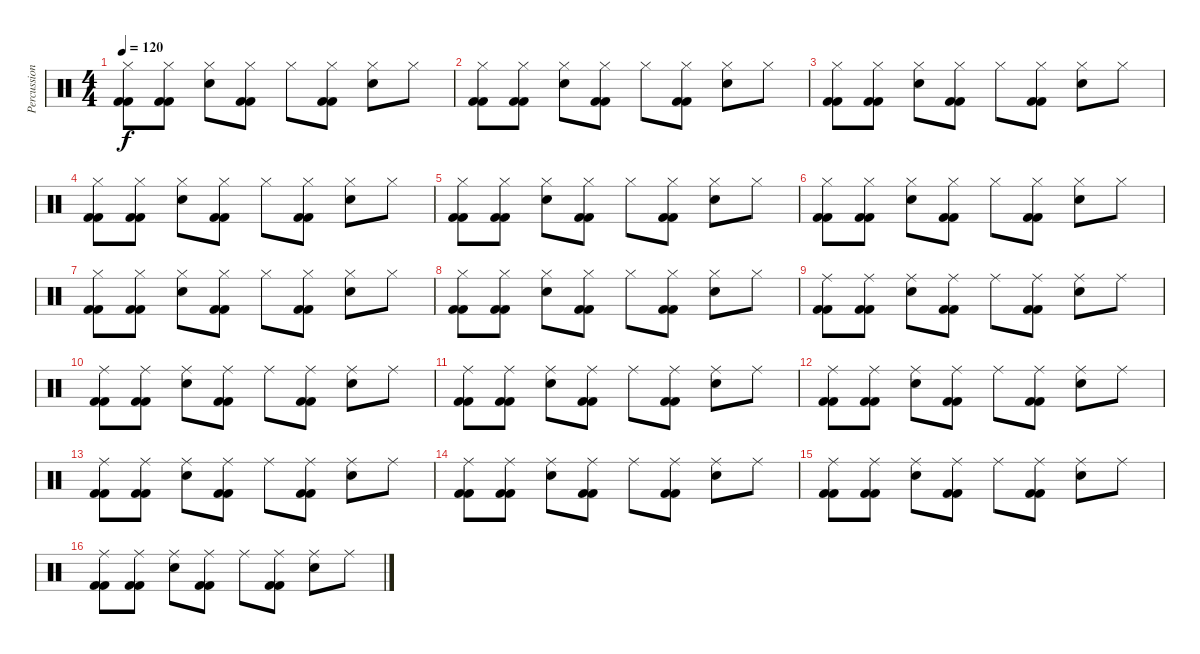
\track ("Percussion" "Percussion") {instrument percussion}
\staff {score}
\articulation defaults
\ts (4 4)
\tempo 120
\clef neutral
\ks c
("Hi-Hat (closed)" "Kick (hit) 2" "Kick (hit) 2").8{dy f} ("Hi-Hat (closed)" "Kick (hit) 2" "Kick (hit) 2").8 ("Hi-Hat (closed)" "Snare (hit) 2").8 ("Hi-Hat (closed)" "Kick (hit) 2" "Kick (hit) 2").8 "Hi-Hat (closed)".8 ("Hi-Hat (closed)" "Kick (hit) 2" "Kick (hit) 2").8 ("Hi-Hat (closed)" "Snare (hit) 2").8 "Hi-Hat (closed)".8 |
("Hi-Hat (closed)" "Kick (hit) 2" "Kick (hit) 2").8 ("Hi-Hat (closed)" "Kick (hit) 2" "Kick (hit) 2").8 ("Hi-Hat (closed)" "Snare (hit) 2").8 ("Hi-Hat (closed)" "Kick (hit) 2" "Kick (hit) 2").8 "Hi-Hat (closed)".8 ("Hi-Hat (closed)" "Kick (hit) 2" "Kick (hit) 2").8 ("Hi-Hat (closed)" "Snare (hit) 2").8 "Hi-Hat (closed)".8 |
("Hi-Hat (closed)" "Kick (hit) 2" "Kick (hit) 2").8 ("Hi-Hat (closed)" "Kick (hit) 2" "Kick (hit) 2").8 ("Hi-Hat (closed)" "Snare (hit) 2").8 ("Hi-Hat (closed)" "Kick (hit) 2" "Kick (hit) 2").8 "Hi-Hat (closed)".8 ("Hi-Hat (closed)" "Kick (hit) 2" "Kick (hit) 2").8 ("Hi-Hat (closed)" "Snare (hit) 2").8 "Hi-Hat (closed)".8 |
("Hi-Hat (closed)" "Kick (hit) 2" "Kick (hit) 2").8 ("Hi-Hat (closed)" "Kick (hit) 2" "Kick (hit) 2").8 ("Hi-Hat (closed)" "Snare (hit) 2").8 ("Hi-Hat (closed)" "Kick (hit) 2" "Kick (hit) 2").8 "Hi-Hat (closed)".8 ("Hi-Hat (closed)" "Kick (hit) 2" "Kick (hit) 2").8 ("Hi-Hat (closed)" "Snare (hit) 2").8 "Hi-Hat (closed)".8 |
("Hi-Hat (closed)" "Kick (hit) 2" "Kick (hit) 2").8 ("Hi-Hat (closed)" "Kick (hit) 2" "Kick (hit) 2").8 ("Hi-Hat (closed)" "Snare (hit) 2").8 ("Hi-Hat (closed)" "Kick (hit) 2" "Kick (hit) 2").8 "Hi-Hat (closed)".8 ("Hi-Hat (closed)" "Kick (hit) 2" "Kick (hit) 2").8 ("Hi-Hat (closed)" "Snare (hit) 2").8 "Hi-Hat (closed)".8 |
("Hi-Hat (closed)" "Kick (hit) 2" "Kick (hit) 2").8 ("Hi-Hat (closed)" "Kick (hit) 2" "Kick (hit) 2").8 ("Hi-Hat (closed)" "Snare (hit) 2").8 ("Hi-Hat (closed)" "Kick (hit) 2" "Kick (hit) 2").8 "Hi-Hat (closed)".8 ("Hi-Hat (closed)" "Kick (hit) 2" "Kick (hit) 2").8 ("Hi-Hat (closed)" "Snare (hit) 2").8 "Hi-Hat (closed)".8 |
("Hi-Hat (closed)" "Kick (hit) 2" "Kick (hit) 2").8 ("Hi-Hat (closed)" "Kick (hit) 2" "Kick (hit) 2").8 ("Hi-Hat (closed)" "Snare (hit) 2").8 ("Hi-Hat (closed)" "Kick (hit) 2" "Kick (hit) 2").8 "Hi-Hat (closed)".8 ("Hi-Hat (closed)" "Kick (hit) 2" "Kick (hit) 2").8 ("Hi-Hat (closed)" "Snare (hit) 2").8 "Hi-Hat (closed)".8 |
("Hi-Hat (closed)" "Kick (hit) 2" "Kick (hit) 2").8 ("Hi-Hat (closed)" "Kick (hit) 2" "Kick (hit) 2").8 ("Hi-Hat (closed)" "Snare (hit) 2").8 ("Hi-Hat (closed)" "Kick (hit) 2" "Kick (hit) 2").8 "Hi-Hat (closed)".8 ("Hi-Hat (closed)" "Kick (hit) 2" "Kick (hit) 2").8 ("Hi-Hat (closed)" "Snare (hit) 2").8 "Hi-Hat (closed)".8 |
("Ride (middle)" "Kick (hit) 2" "Kick (hit) 2").8 ("Ride (middle)" "Kick (hit) 2" "Kick (hit) 2").8 ("Ride (middle)" "Snare (hit) 2").8 ("Ride (middle)" "Kick (hit) 2" "Kick (hit) 2").8 "Ride (middle)".8 ("Ride (middle)" "Kick (hit) 2" "Kick (hit) 2").8 ("Ride (middle)" "Snare (hit) 2").8 "Ride (middle)".8 |
("Ride (middle)" "Kick (hit) 2" "Kick (hit) 2").8 ("Ride (middle)" "Kick (hit) 2" "Kick (hit) 2").8 ("Ride (middle)" "Snare (hit) 2").8 ("Ride (middle)" "Kick (hit) 2" "Kick (hit) 2").8 "Ride (middle)".8 ("Ride (middle)" "Kick (hit) 2" "Kick (hit) 2").8 ("Ride (middle)" "Snare (hit) 2").8 "Ride (middle)".8 |
("Ride (middle)" "Kick (hit) 2" "Kick (hit) 2").8 ("Ride (middle)" "Kick (hit) 2" "Kick (hit) 2").8 ("Ride (middle)" "Snare (hit) 2").8 ("Ride (middle)" "Kick (hit) 2" "Kick (hit) 2").8 "Ride (middle)".8 ("Ride (middle)" "Kick (hit) 2" "Kick (hit) 2").8 ("Ride (middle)" "Snare (hit) 2").8 "Ride (middle)".8 |
("Ride (middle)" "Kick (hit) 2" "Kick (hit) 2").8 ("Ride (middle)" "Kick (hit) 2" "Kick (hit) 2").8 ("Ride (middle)" "Snare (hit) 2").8 ("Ride (middle)" "Kick (hit) 2" "Kick (hit) 2").8 "Ride (middle)".8 ("Ride (middle)" "Kick (hit) 2" "Kick (hit) 2").8 ("Ride (middle)" "Snare (hit) 2").8 "Ride (middle)".8 |
("Ride (middle)" "Kick (hit) 2" "Kick (hit) 2").8 ("Ride (middle)" "Kick (hit) 2" "Kick (hit) 2").8 ("Ride (middle)" "Snare (hit) 2").8 ("Ride (middle)" "Kick (hit) 2" "Kick (hit) 2").8 "Ride (middle)".8 ("Ride (middle)" "Kick (hit) 2" "Kick (hit) 2").8 ("Ride (middle)" "Snare (hit) 2").8 "Ride (middle)".8 |
("Ride (middle)" "Kick (hit) 2" "Kick (hit) 2").8 ("Ride (middle)" "Kick (hit) 2" "Kick (hit) 2").8 ("Ride (middle)" "Snare (hit) 2").8 ("Ride (middle)" "Kick (hit) 2" "Kick (hit) 2").8 "Ride (middle)".8 ("Ride (middle)" "Kick (hit) 2" "Kick (hit) 2").8 ("Ride (middle)" "Snare (hit) 2").8 "Ride (middle)".8 |
("Ride (middle)" "Kick (hit) 2" "Kick (hit) 2").8 ("Ride (middle)" "Kick (hit) 2" "Kick (hit) 2").8 ("Ride (middle)" "Snare (hit) 2").8 ("Ride (middle)" "Kick (hit) 2" "Kick (hit) 2").8 "Ride (middle)".8 ("Ride (middle)" "Kick (hit) 2" "Kick (hit) 2").8 ("Ride (middle)" "Snare (hit) 2").8 "Ride (middle)".8 |
("Ride (middle)" "Kick (hit) 2" "Kick (hit) 2").8 ("Ride (middle)" "Kick (hit) 2" "Kick (hit) 2").8 ("Ride (middle)" "Snare (hit) 2").8 ("Ride (middle)" "Kick (hit) 2" "Kick (hit) 2").8 "Ride (middle)".8 ("Ride (middle)" "Kick (hit) 2" "Kick (hit) 2").8 ("Ride (middle)" "Snare (hit) 2").8 "Ride (middle)".8
